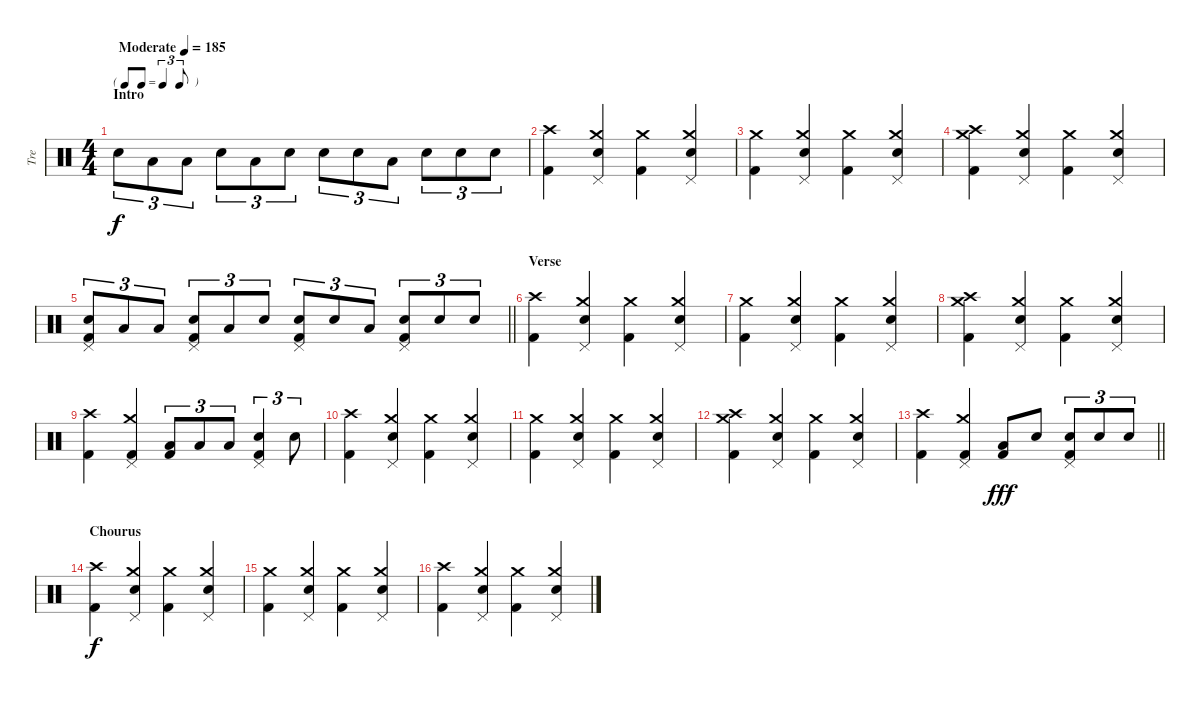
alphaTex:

\track ("Tre" "Tre") {instrument percussion}
\staff {score}
\articulation defaults
\ts (4 4)
\tf triplet8th
\section ("" "Intro")
\tempo (185 "Moderate")
\clef neutral
\ks c "Snare (hit) 2".8{tu (3 2) dy f} "Low Tom (hit)".8{tu (3 2)} "Low Tom (hit)".8{tu (3 2)} "Snare (hit) 2".8{tu (3 2)} "Low Tom (hit)".8{tu (3 2)} "Snare (hit) 2".8{tu (3 2)} "Snare (hit) 2".8{tu (3 2)} "Snare (hit) 2".8{tu (3 2)} "Low Tom (hit)".8{tu (3 2)} "Snare (hit) 2".8{tu (3 2)} "Snare (hit) 2".8{tu (3 2)} "Snare (hit) 2".8{tu (3 2)}
|
("Crash high (hit)" "Kick (hit) 2").4 ("Crash medium (hit)" "Snare (hit) 2" "Pedal Hi-Hat (hit)").4 ("Crash medium (hit)" "Kick (hit) 2").4 ("Crash medium (hit)" "Snare (hit) 2" "Pedal Hi-Hat (hit)").4 |
("Crash medium (hit)" "Kick (hit) 2").4 ("Crash medium (hit)" "Snare (hit) 2" "Pedal Hi-Hat (hit)").4 ("Crash medium (hit)" "Kick (hit) 2").4 ("Crash medium (hit)" "Snare (hit) 2" "Pedal Hi-Hat (hit)").4 |
("Crash medium (hit)" "Crash high (hit)" "Kick (hit) 2").4 ("Crash medium (hit)" "Snare (hit) 2" "Pedal Hi-Hat (hit)").4 ("Crash medium (hit)" "Kick (hit) 2").4 ("Crash medium (hit)" "Snare (hit) 2" "Pedal Hi-Hat (hit)").4 |
\barLineRight lightlight
("Snare (hit) 2" "Pedal Hi-Hat (hit)" "Kick (hit) 2").8{tu (3 2)} "Low Tom (hit)".8{tu (3 2)} "Low Tom (hit)".8{tu (3 2)} ("Snare (hit) 2" "Pedal Hi-Hat (hit)" "Kick (hit) 2").8{tu (3 2)} "Low Tom (hit)".8{tu (3 2)} "Snare (hit) 2".8{tu (3 2)} ("Snare (hit) 2" "Pedal Hi-Hat (hit)" "Kick (hit) 2").8{tu (3 2)} "Snare (hit) 2".8{tu (3 2)} "Low Tom (hit)".8{tu (3 2)} ("Snare (hit) 2" "Pedal Hi-Hat (hit)" "Kick (hit) 2").8{tu (3 2)} "Snare (hit) 2".8{tu (3 2)} "Snare (hit) 2".8{tu (3 2)} |
\section ("" "Verse")
("Crash high (hit)" "Kick (hit) 2").4 ("Crash medium (hit)" "Snare (hit) 2" "Pedal Hi-Hat (hit)").4 ("Crash medium (hit)" "Kick (hit) 2").4 ("Crash medium (hit)" "Snare (hit) 2" "Pedal Hi-Hat (hit)").4 |
("Crash medium (hit)" "Kick (hit) 2").4 ("Crash medium (hit)" "Snare (hit) 2" "Pedal Hi-Hat (hit)").4 ("Crash medium (hit)" "Kick (hit) 2").4 ("Crash medium (hit)" "Snare (hit) 2" "Pedal Hi-Hat (hit)").4 |
("Crash medium (hit)" "Crash high (hit)" "Kick (hit) 2").4 ("Crash medium (hit)" "Snare (hit) 2" "Pedal Hi-Hat (hit)").4 ("Crash medium (hit)" "Kick (hit) 2").4 ("Crash medium (hit)" "Snare (hit) 2" "Pedal Hi-Hat (hit)").4 |
("Crash high (hit)" "Kick (hit) 2").4 ("Crash medium (hit)" "Pedal Hi-Hat (hit)" "Kick (hit) 2").4 ("Low Tom (hit)" "Kick (hit) 2").8{tu (3 2)} "Low Tom (hit)".8{tu (3 2)} "Low Tom (hit)".8{tu (3 2)} ("Snare (hit) 2" "Pedal Hi-Hat (hit)" "Kick (hit) 2").4{tu (3 2)} "Snare (hit) 2".8{tu (3 2)} |
("Crash high (hit)" "Kick (hit) 2").4 ("Crash medium (hit)" "Snare (hit) 2" "Pedal Hi-Hat (hit)").4 ("Crash medium (hit)" "Kick (hit) 2").4 ("Crash medium (hit)" "Snare (hit) 2" "Pedal Hi-Hat (hit)").4 |
("Crash medium (hit)" "Kick (hit) 2").4 ("Crash medium (hit)" "Snare (hit) 2" "Pedal Hi-Hat (hit)").4 ("Crash medium (hit)" "Kick (hit) 2").4 ("Crash medium (hit)" "Snare (hit) 2" "Pedal Hi-Hat (hit)").4 |
("Crash medium (hit)" "Crash high (hit)" "Kick (hit) 2").4 ("Crash medium (hit)" "Snare (hit) 2" "Pedal Hi-Hat (hit)").4 ("Crash medium (hit)" "Kick (hit) 2").4 ("Crash medium (hit)" "Snare (hit) 2" "Pedal Hi-Hat (hit)").4 |
\barLineRight lightlight
("Crash high (hit)" "Kick (hit) 2").4 ("Crash medium (hit)" "Pedal Hi-Hat (hit)" "Kick (hit) 2").4 ("Low Tom (hit)" "Kick (hit) 2").8{dy fff} "Snare (hit) 2".8 ("Snare (hit) 2" "Pedal Hi-Hat (hit)" "Kick (hit) 2").8{tu (3 2)} "Snare (hit) 2".8{tu (3 2)} "Snare (hit) 2".8{tu (3 2)} |
\section ("" "Chourus")
("Crash high (hit)" "Kick (hit) 2").4{dy f} ("Crash medium (hit)" "Snare (hit) 2" "Pedal Hi-Hat (hit)").4 ("Crash medium (hit)" "Kick (hit) 2").4 ("Crash medium (hit)" "Snare (hit) 2" "Pedal Hi-Hat (hit)").4 |
("Crash medium (hit)" "Kick (hit) 2").4 ("Crash medium (hit)" "Snare (hit) 2" "Pedal Hi-Hat (hit)").4 ("Crash medium (hit)" "Kick (hit) 2").4 ("Crash medium (hit)" "Snare (hit) 2" "Pedal Hi-Hat (hit)").4 |
("Crash high (hit)" "Kick (hit) 2").4 ("Crash medium (hit)" "Snare (hit) 2" "Pedal Hi-Hat (hit)").4 ("Crash medium (hit)" "Kick (hit) 2").4 ("Crash medium (hit)" "Snare (hit) 2" "Pedal Hi-Hat (hit)").4
